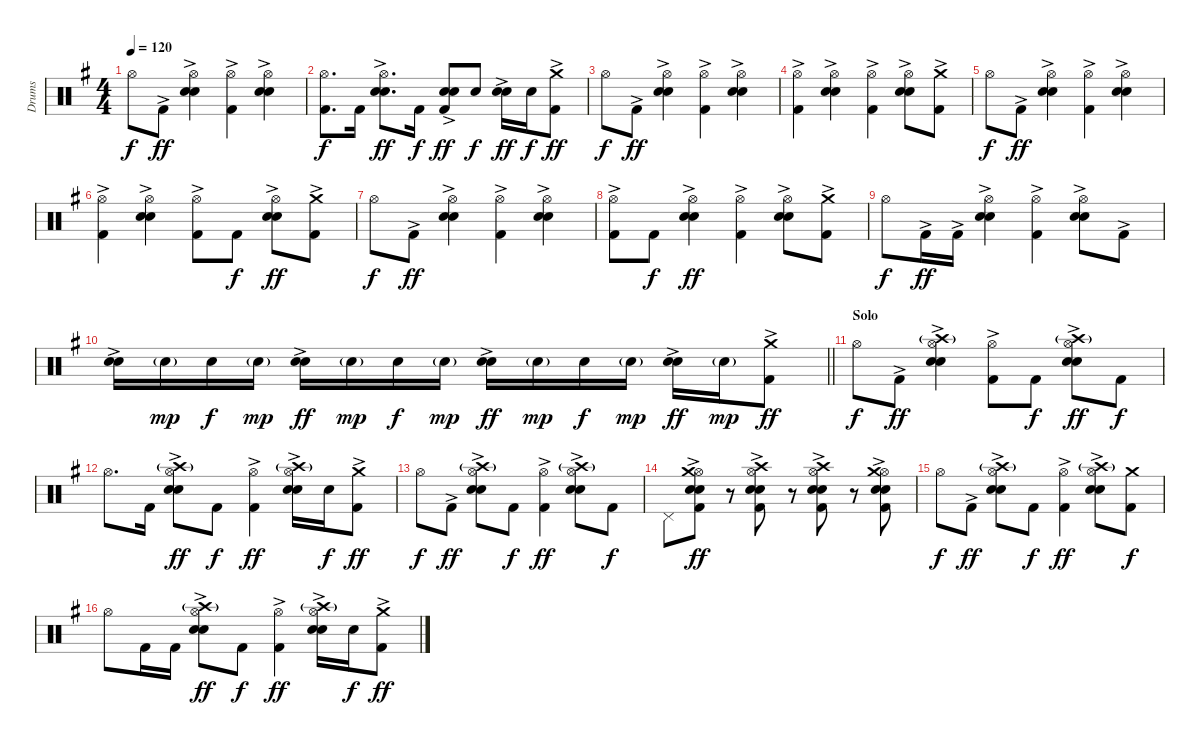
\track ("Drums" "Drums") {instrument percussion}
\staff {score}
\articulation defaults
\ts (4 4)
\tempo 120
\clef neutral
\ks g "Hi-Hat (open)".8{dy f} "Kick (hit) 2"{ac}.8{dy ff}
("Hi-Hat (open)" "Electric Snare (hit)"{ac} "Snare (hit) 2").4 ("Hi-Hat (open)" "Kick (hit) 2"{ac}).4 ("Hi-Hat (open)" "Electric Snare (hit)"{ac} "Snare (hit) 2").4 |
("Hi-Hat (open)" "Kick (hit) 2").8{d dy f} "Kick (hit) 2".16 ("Hi-Hat (open)" "Electric Snare (hit)"{ac} "Snare (hit) 2").8{d dy ff} "Kick (hit) 2".16{dy f} ("Electric Snare (hit)"{ac} "Snare (hit) 2" "Kick (hit) 2").8{dy ff} "Snare (hit) 2".8{dy f} ("Electric Snare (hit)"{ac} "Snare (hit) 2").16{dy ff} "Snare (hit) 2".16{dy f} ("Crash medium (hit)" "Kick (hit) 2"{ac}).8{dy ff} |
"Hi-Hat (open)".8{dy f} "Kick (hit) 2"{ac}.8{dy ff} ("Hi-Hat (open)" "Electric Snare (hit)"{ac} "Snare (hit) 2").4 ("Hi-Hat (open)" "Kick (hit) 2"{ac}).4 ("Hi-Hat (open)" "Electric Snare (hit)"{ac} "Snare (hit) 2").4 |
("Hi-Hat (open)" "Kick (hit) 2"{ac}).4 ("Hi-Hat (open)" "Electric Snare (hit)"{ac} "Snare (hit) 2").4 ("Hi-Hat (open)" "Kick (hit) 2"{ac}).4 ("Hi-Hat (open)" "Electric Snare (hit)"{ac} "Snare (hit) 2").8 ("Crash medium (hit)" "Kick (hit) 2"{ac}).8 |
"Hi-Hat (open)".8{dy f} "Kick (hit) 2"{ac}.8{dy ff} ("Hi-Hat (open)" "Electric Snare (hit)"{ac} "Snare (hit) 2").4 ("Hi-Hat (open)" "Kick (hit) 2"{ac}).4 ("Hi-Hat (open)" "Electric Snare (hit)"{ac} "Snare (hit) 2").4 |
("Hi-Hat (open)" "Kick (hit) 2"{ac}).4 ("Hi-Hat (open)" "Electric Snare (hit)"{ac} "Snare (hit) 2").4 ("Hi-Hat (open)" "Kick (hit) 2"{ac}).8 "Kick (hit) 2".8{dy f} ("Hi-Hat (open)" "Electric Snare (hit)"{ac} "Snare (hit) 2").8{dy ff} ("Crash medium (hit)" "Kick (hit) 2"{ac}).8 |
"Hi-Hat (open)".8{dy f} "Kick (hit) 2"{ac}.8{dy ff} ("Hi-Hat (open)" "Electric Snare (hit)"{ac} "Snare (hit) 2").4 ("Hi-Hat (open)" "Kick (hit) 2"{ac}).4 ("Hi-Hat (open)" "Electric Snare (hit)"{ac} "Snare (hit) 2").4 |
("Hi-Hat (open)" "Kick (hit) 2"{ac}).8 "Kick (hit) 2".8{dy f} ("Hi-Hat (open)" "Electric Snare (hit)"{ac} "Snare (hit) 2").4{dy ff} ("Hi-Hat (open)" "Kick (hit) 2"{ac}).4 ("Hi-Hat (open)" "Electric Snare (hit)"{ac} "Snare (hit) 2").8 ("Crash medium (hit)" "Kick (hit) 2"{ac}).8 |
"Hi-Hat (open)".8{dy f} "Kick (hit) 2"{ac}.16{dy ff} "Kick (hit) 2"{ac}.16 ("Hi-Hat (open)" "Electric Snare (hit)"{ac} "Snare (hit) 2").4 ("Hi-Hat (open)" "Kick (hit) 2"{ac}).4 ("Hi-Hat (open)" "Electric Snare (hit)"{ac} "Snare (hit) 2").8 "Kick (hit) 2"{ac}.8 |
\barLineRight lightlight
("Electric Snare (hit)"{ac} "Snare (hit) 2").16 "Snare (hit) 2"{g}.16{dy mp} "Snare (hit) 2".16{dy f} "Snare (hit) 2"{g}.16{dy mp} ("Electric Snare (hit)"{ac} "Snare (hit) 2").16{dy ff} "Snare (hit) 2"{g}.16{dy mp} "Snare (hit) 2".16{dy f} "Snare (hit) 2"{g}.16{dy mp} ("Electric Snare (hit)"{ac} "Snare (hit) 2").16{dy ff} "Snare (hit) 2"{g}.16{dy mp} "Snare (hit) 2".16{dy f} "Snare (hit) 2"{g}.16{dy mp} ("Electric Snare (hit)"{ac} "Snare (hit) 2").16{dy ff} "Snare (hit) 2"{g}.16{dy mp} ("Crash medium (hit)" "Kick (hit) 2"{ac}).8{dy ff} |
\section ("" "Solo")
"Hi-Hat (open)".8{dy f} "Kick (hit) 2"{ac}.8{dy ff} ("Hi-Hat (open)" "Crash high (hit)"{g} "Electric Snare (hit)"{ac} "Snare (hit) 2").4 ("Hi-Hat (open)" "Kick (hit) 2"{ac}).8 "Kick (hit) 2".8{dy f} ("Hi-Hat (open)" "Crash high (hit)"{g} "Electric Snare (hit)"{ac} "Snare (hit) 2").8{dy ff} "Kick (hit) 2".8{dy f} |
"Hi-Hat (open)".8{d} "Kick (hit) 2".16 ("Hi-Hat (open)" "Crash high (hit)"{g} "Electric Snare (hit)"{ac} "Snare (hit) 2").8{dy ff} "Kick (hit) 2".8{dy f} ("Hi-Hat (open)" "Kick (hit) 2"{ac}).4{dy ff} ("Hi-Hat (open)" "Crash high (hit)"{g} "Electric Snare (hit)"{ac} "Snare (hit) 2").16 "Snare (hit) 2".16{dy f} ("Crash medium (hit)" "Kick (hit) 2"{ac}).8{dy ff} |
"Hi-Hat (open)".8{dy f} "Kick (hit) 2"{ac}.8{dy ff} ("Hi-Hat (open)" "Crash high (hit)"{g} "Electric Snare (hit)"{ac} "Snare (hit) 2").8 "Kick (hit) 2".8{dy f} ("Hi-Hat (open)" "Kick (hit) 2"{ac}).4{dy ff} ("Hi-Hat (open)" "Crash high (hit)"{g} "Electric Snare (hit)"{ac} "Snare (hit) 2").8 "Kick (hit) 2".8{dy f} |
"Pedal Hi-Hat (hit)".8 ("Hi-Hat (open)" "Crash medium (hit)" "Electric Snare (hit)"{ac} "Snare (hit) 2" "Kick (hit) 2"{ac}).8{dy ff} r.8 ("Hi-Hat (open)" "Crash high (hit)" "Electric Snare (hit)"{ac} "Snare (hit) 2" "Kick (hit) 2"{ac}).8 r.8 ("Hi-Hat (open)" "Crash high (hit)" "Electric Snare (hit)"{ac} "Snare (hit) 2" "Kick (hit) 2"{ac}).8 r.8 ("Hi-Hat (open)" "Crash medium (hit)" "Electric Snare (hit)"{ac} "Snare (hit) 2" "Kick (hit) 2"{ac}).8 |
"Hi-Hat (open)".8{dy f} "Kick (hit) 2"{ac}.8{dy ff} ("Hi-Hat (open)" "Crash high (hit)"{g} "Electric Snare (hit)"{ac} "Snare (hit) 2").8 "Kick (hit) 2".8{dy f} ("Hi-Hat (open)" "Kick (hit) 2"{ac}).4{dy ff} ("Hi-Hat (open)" "Crash high (hit)"{g} "Electric Snare (hit)"{ac} "Snare (hit) 2").8 ("Crash medium (hit)" "Kick (hit) 2").8{dy f} |
"Hi-Hat (open)".8 "Kick (hit) 2".16 "Kick (hit) 2".16 ("Hi-Hat (open)" "Crash high (hit)"{g} "Electric Snare (hit)"{ac} "Snare (hit) 2").8{dy ff} "Kick (hit) 2".8{dy f} ("Hi-Hat (open)" "Kick (hit) 2"{ac}).4{dy ff} ("Hi-Hat (open)" "Crash high (hit)"{g} "Electric Snare (hit)"{ac} "Snare (hit) 2").16 "Snare (hit) 2".16{dy f} ("Crash medium (hit)" "Kick (hit) 2"{ac}).8{dy ff}
